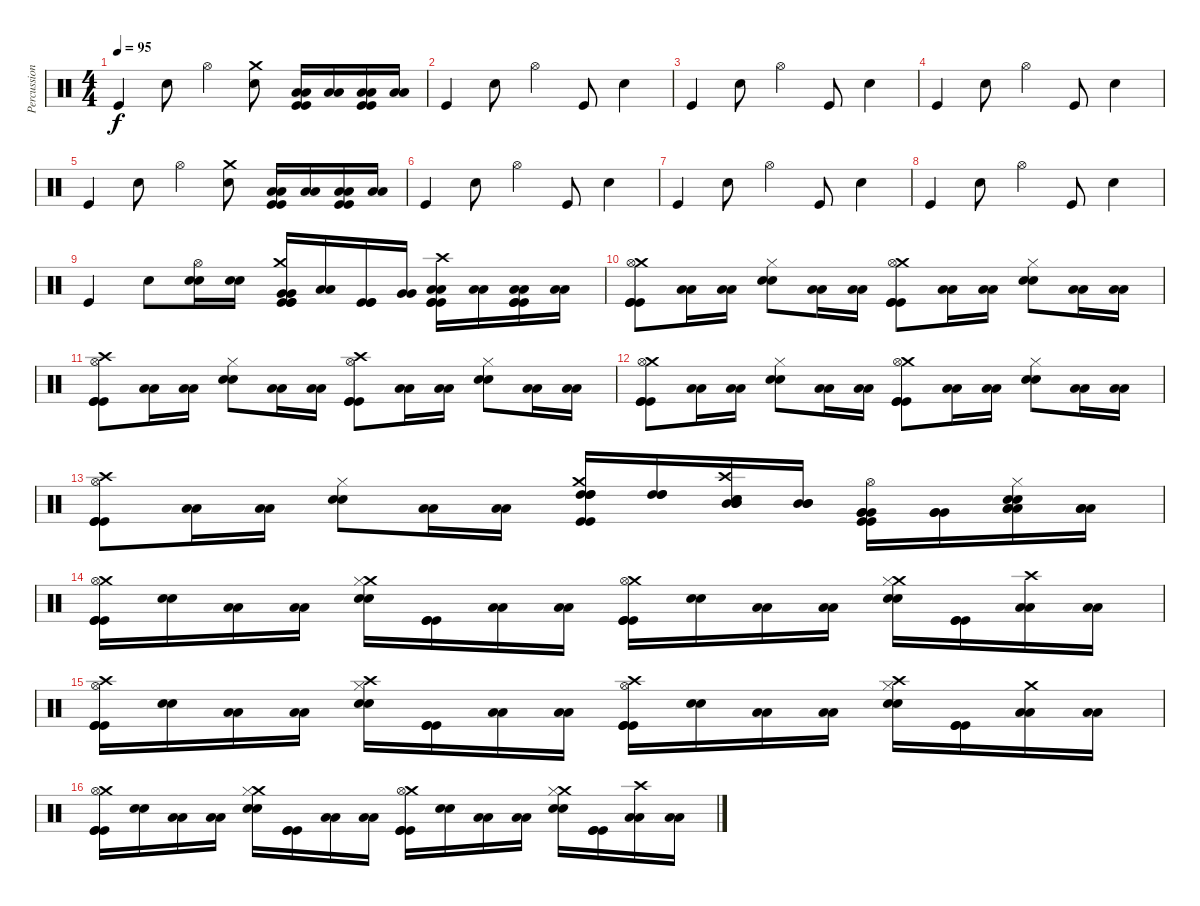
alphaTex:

\track ("Percussion" "Percussion") {instrument percussion}
\staff {score}
\articulation defaults
\ts (4 4)
\tempo 95
\clef neutral
\ks c "Kick (hit)".4{dy f} "Snare (hit) 2".8 "Hi-Hat (open)".4
("Crash medium (hit)" "Snare (hit) 2").8 ("Kick (hit)" "Low Tom (hit)" "Low Tom (hit)" "Kick (hit)").16 ("Low Tom (hit)" "Low Tom (hit)").16 ("Kick (hit)" "Low Floor Tom (hit)" "Low Floor Tom (hit)" "Kick (hit)").16 ("Low Floor Tom (hit)" "Low Floor Tom (hit)").16 |
"Kick (hit)".4 "Snare (hit) 2".8 "Hi-Hat (open)".4 "Kick (hit)".8 "Snare (hit) 2".4 |
"Kick (hit)".4 "Snare (hit) 2".8 "Hi-Hat (open)".4 "Kick (hit)".8 "Snare (hit) 2".4 |
"Kick (hit)".4 "Snare (hit) 2".8 "Hi-Hat (open)".4 "Kick (hit)".8 "Snare (hit) 2".4 |
"Kick (hit)".4 "Snare (hit) 2".8 "Hi-Hat (open)".4 ("Crash medium (hit)" "Snare (hit) 2").8 ("Kick (hit)" "Low Tom (hit)" "Low Tom (hit)" "Kick (hit)").16 ("Low Tom (hit)" "Low Tom (hit)").16 ("Kick (hit)" "Low Floor Tom (hit)" "Low Floor Tom (hit)" "Kick (hit)").16 ("Low Floor Tom (hit)" "Low Floor Tom (hit)").16 |
"Kick (hit)".4 "Snare (hit) 2".8 "Hi-Hat (open)".4 "Kick (hit)".8 "Snare (hit) 2".4 |
"Kick (hit)".4 "Snare (hit) 2".8 "Hi-Hat (open)".4 "Kick (hit)".8 "Snare (hit) 2".4 |
"Kick (hit)".4 "Snare (hit) 2".8 "Hi-Hat (open)".4 "Kick (hit)".8 "Snare (hit) 2".4 |
"Kick (hit)".4 "Snare (hit) 2".8 ("Hi-Hat (open)" "Snare (hit) 2" "Snare (hit) 2").16 ("Snare (hit) 2" "Snare (hit) 2").16 ("Crash medium (hit)" "Kick (hit)" "Very Low Tom (hit)" "Very Low Tom (hit)" "Kick (hit)" "Kick (hit)").16 ("Low Tom (hit)" "Low Tom (hit)").16 ("Kick (hit)" "Kick (hit)" "Kick (hit)").16 ("Very Low Tom (hit)" "Very Low Tom (hit)").16 ("Crash high (hit)" "Kick (hit)" "Kick (hit)" "Low Tom (hit)" "Low Tom (hit)" "Kick (hit)").16 ("Low Tom (hit)" "Low Tom (hit)").16 ("Kick (hit)" "Kick (hit)" "Low Floor Tom (hit)" "Low Floor Tom (hit)" "Kick (hit)").16 ("Low Floor Tom (hit)" "Low Floor Tom (hit)").16 |
("Crash medium (hit)" "Hi-Hat (open)" "Kick (hit)" "Kick (hit)" "Kick (hit)").8 ("Low Tom (hit)" "Low Tom (hit)").16 ("Low Tom (hit)" "Low Tom (hit)").16 ("Hi-Hat (closed)" "Snare (hit) 2" "Snare (hit) 2").8 ("Low Floor Tom (hit)" "Low Floor Tom (hit)").16 ("Low Floor Tom (hit)" "Low Floor Tom (hit)").16 ("Crash medium (hit)" "Hi-Hat (open)" "Kick (hit)" "Kick (hit)" "Kick (hit)").8 ("Low Tom (hit)" "Low Tom (hit)").16 ("Low Tom (hit)" "Low Tom (hit)").16 ("Hi-Hat (closed)" "Snare (hit) 2" "Snare (hit) 2").8 ("Low Floor Tom (hit)" "Low Floor Tom (hit)").16 ("Low Floor Tom (hit)" "Low Floor Tom (hit)").16 |
("Crash high (hit)" "Hi-Hat (open)" "Kick (hit)" "Kick (hit)" "Kick (hit)").8 ("Low Tom (hit)" "Low Tom (hit)").16 ("Low Tom (hit)" "Low Tom (hit)").16 ("Hi-Hat (closed)" "Snare (hit) 2" "Snare (hit) 2").8 ("Low Floor Tom (hit)" "Low Floor Tom (hit)").16 ("Low Floor Tom (hit)" "Low Floor Tom (hit)").16 ("Crash high (hit)" "Hi-Hat (open)" "Kick (hit)" "Kick (hit)" "Kick (hit)").8 ("Low Tom (hit)" "Low Tom (hit)").16 ("Low Tom (hit)" "Low Tom (hit)").16 ("Hi-Hat (closed)" "Snare (hit) 2" "Snare (hit) 2").8 ("Low Floor Tom (hit)" "Low Floor Tom (hit)").16 ("Low Floor Tom (hit)" "Low Floor Tom (hit)").16 |
("Crash medium (hit)" "Hi-Hat (open)" "Kick (hit)" "Kick (hit)" "Kick (hit)").8 ("Low Tom (hit)" "Low Tom (hit)").16 ("Low Tom (hit)" "Low Tom (hit)").16 ("Hi-Hat (closed)" "Snare (hit) 2" "Snare (hit) 2").8 ("Low Floor Tom (hit)" "Low Floor Tom (hit)").16 ("Low Floor Tom (hit)" "Low Floor Tom (hit)").16 ("Crash medium (hit)" "Hi-Hat (open)" "Kick (hit)" "Kick (hit)" "Kick (hit)").8 ("Low Tom (hit)" "Low Tom (hit)").16 ("Low Tom (hit)" "Low Tom (hit)").16 ("Hi-Hat (closed)" "Snare (hit) 2" "Snare (hit) 2").8 ("Low Floor Tom (hit)" "Low Floor Tom (hit)").16 ("Low Floor Tom (hit)" "Low Floor Tom (hit)").16 |
("Crash high (hit)" "Hi-Hat (open)" "Kick (hit)" "Kick (hit)" "Kick (hit)").8 ("Low Tom (hit)" "Low Tom (hit)").16 ("Low Tom (hit)" "Low Tom (hit)").16 ("Hi-Hat (closed)" "Snare (hit) 2" "Snare (hit) 2").8 ("Low Floor Tom (hit)" "Low Floor Tom (hit)").16 ("Low Floor Tom (hit)" "Low Floor Tom (hit)").16 ("Kick (hit)" "Kick (hit)" "Crash medium (hit)" "High Tom (hit)" "High Tom (hit)" "High Tom (hit)").16{volume 16} ("High Tom (hit)" "High Tom (hit)" "High Tom (hit)").16 ("Snare (hit) 2" "Snare (hit) 2" "Crash high (hit)" "Mid Tom (hit)" "Mid Tom (hit)" "Mid Tom (hit)").16 ("Mid Tom (hit)" "Mid Tom (hit)" "Mid Tom (hit)").16 ("Kick (hit)" "Kick (hit)" "Hi-Hat (open)" "Very Low Tom (hit)" "Very Low Tom (hit)" "Very Low Tom (hit)").16 ("Very Low Tom (hit)" "Very Low Tom (hit)" "Very Low Tom (hit)").16 ("Snare (hit) 2" "Snare (hit) 2" "Hi-Hat (closed)" "Low Floor Tom (hit)" "Low Floor Tom (hit)" "Low Floor Tom (hit)").16 ("Low Floor Tom (hit)" "Low Floor Tom (hit)" "Low Floor Tom (hit)").16 |
("Crash medium (hit)" "Hi-Hat (open)" "Kick (hit)" "Kick (hit)" "Kick (hit)").16 ("Snare (hit) 2" "Snare (hit) 2").16 ("Low Tom (hit)" "Low Tom (hit)").16 ("Low Tom (hit)" "Low Tom (hit)").16 ("Crash medium (hit)" "Hi-Hat (closed)" "Snare (hit) 2" "Snare (hit) 2").16 ("Kick (hit)" "Kick (hit)" "Kick (hit)").16 ("Low Floor Tom (hit)" "Low Floor Tom (hit)").16 ("Low Floor Tom (hit)" "Low Floor Tom (hit)").16 ("Crash medium (hit)" "Hi-Hat (open)" "Kick (hit)" "Kick (hit)" "Kick (hit)").16 ("Snare (hit) 2" "Snare (hit) 2").16 ("Low Tom (hit)" "Low Tom (hit)").16 ("Low Tom (hit)" "Low Tom (hit)").16 ("Crash medium (hit)" "Hi-Hat (closed)" "Snare (hit) 2" "Snare (hit) 2").16 ("Kick (hit)" "Kick (hit)" "Kick (hit)").16 ("Crash high (hit)" "Low Floor Tom (hit)" "Low Floor Tom (hit)").16 ("Low Floor Tom (hit)" "Low Floor Tom (hit)").16 |
("Crash high (hit)" "Hi-Hat (open)" "Kick (hit)" "Kick (hit)" "Kick (hit)").16 ("Snare (hit) 2" "Snare (hit) 2").16 ("Low Tom (hit)" "Low Tom (hit)").16 ("Low Tom (hit)" "Low Tom (hit)").16 ("Crash high (hit)" "Hi-Hat (closed)" "Snare (hit) 2" "Snare (hit) 2").16 ("Kick (hit)" "Kick (hit)" "Kick (hit)").16 ("Low Floor Tom (hit)" "Low Floor Tom (hit)").16 ("Low Floor Tom (hit)" "Low Floor Tom (hit)").16 ("Crash high (hit)" "Hi-Hat (open)" "Kick (hit)" "Kick (hit)" "Kick (hit)").16 ("Snare (hit) 2" "Snare (hit) 2").16 ("Low Tom (hit)" "Low Tom (hit)").16 ("Low Tom (hit)" "Low Tom (hit)").16 ("Crash high (hit)" "Hi-Hat (closed)" "Snare (hit) 2" "Snare (hit) 2").16 ("Kick (hit)" "Kick (hit)" "Kick (hit)").16 ("Crash medium (hit)" "Low Floor Tom (hit)" "Low Floor Tom (hit)").16 ("Low Floor Tom (hit)" "Low Floor Tom (hit)").16 |
("Crash medium (hit)" "Hi-Hat (open)" "Kick (hit)" "Kick (hit)" "Kick (hit)").16 ("Snare (hit) 2" "Snare (hit) 2").16 ("Low Tom (hit)" "Low Tom (hit)").16 ("Low Tom (hit)" "Low Tom (hit)").16 ("Crash medium (hit)" "Hi-Hat (closed)" "Snare (hit) 2" "Snare (hit) 2").16 ("Kick (hit)" "Kick (hit)" "Kick (hit)").16 ("Low Floor Tom (hit)" "Low Floor Tom (hit)").16 ("Low Floor Tom (hit)" "Low Floor Tom (hit)").16 ("Crash medium (hit)" "Hi-Hat (open)" "Kick (hit)" "Kick (hit)" "Kick (hit)").16 ("Snare (hit) 2" "Snare (hit) 2").16 ("Low Tom (hit)" "Low Tom (hit)").16 ("Low Tom (hit)" "Low Tom (hit)").16 ("Crash medium (hit)" "Hi-Hat (closed)" "Snare (hit) 2" "Snare (hit) 2").16 ("Kick (hit)" "Kick (hit)" "Kick (hit)").16 ("Crash high (hit)" "Low Floor Tom (hit)" "Low Floor Tom (hit)").16 ("Low Floor Tom (hit)" "Low Floor Tom (hit)").16
